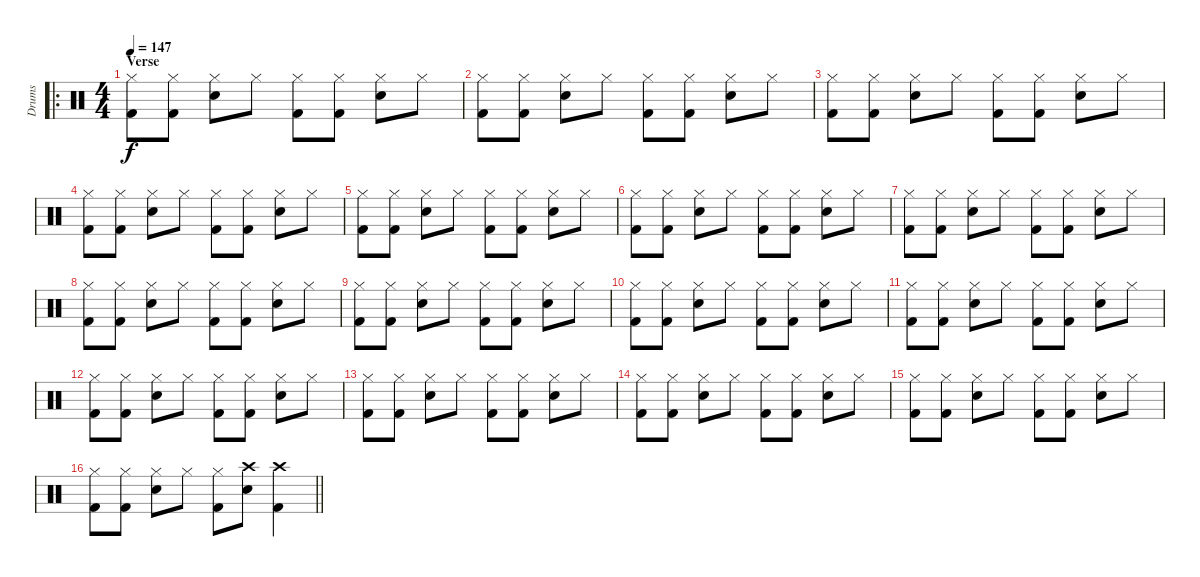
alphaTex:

\track ("Drums" "Drums") {instrument percussion}
\staff {score}
\articulation defaults
\ro
\ts (4 4)
\section ("" "Verse")
\tempo 147
\clef neutral
\ks c
("Hi-Hat (closed)" "Kick (hit) 2").8{dy f} ("Hi-Hat (closed)" "Kick (hit) 2").8 ("Hi-Hat (closed)" "Snare (hit) 2").8 "Hi-Hat (closed)".8 ("Hi-Hat (closed)" "Kick (hit) 2").8 ("Hi-Hat (closed)" "Kick (hit) 2").8 ("Hi-Hat (closed)" "Snare (hit) 2").8 "Hi-Hat (closed)".8 |
("Hi-Hat (closed)" "Kick (hit) 2").8 ("Hi-Hat (closed)" "Kick (hit) 2").8 ("Hi-Hat (closed)" "Snare (hit) 2").8 "Hi-Hat (closed)".8 ("Hi-Hat (closed)" "Kick (hit) 2").8 ("Hi-Hat (closed)" "Kick (hit) 2").8 ("Hi-Hat (closed)" "Snare (hit) 2").8 "Hi-Hat (closed)".8 |
("Hi-Hat (closed)" "Kick (hit) 2").8 ("Hi-Hat (closed)" "Kick (hit) 2").8 ("Hi-Hat (closed)" "Snare (hit) 2").8 "Hi-Hat (closed)".8 ("Hi-Hat (closed)" "Kick (hit) 2").8 ("Hi-Hat (closed)" "Kick (hit) 2").8 ("Hi-Hat (closed)" "Snare (hit) 2").8 "Hi-Hat (closed)".8 |
("Hi-Hat (closed)" "Kick (hit) 2").8 ("Hi-Hat (closed)" "Kick (hit) 2").8 ("Hi-Hat (closed)" "Snare (hit) 2").8 "Hi-Hat (closed)".8 ("Hi-Hat (closed)" "Kick (hit) 2").8 ("Hi-Hat (closed)" "Kick (hit) 2").8 ("Hi-Hat (closed)" "Snare (hit) 2").8 "Hi-Hat (closed)".8 |
("Hi-Hat (closed)" "Kick (hit) 2").8 ("Hi-Hat (closed)" "Kick (hit) 2").8 ("Hi-Hat (closed)" "Snare (hit) 2").8 "Hi-Hat (closed)".8 ("Hi-Hat (closed)" "Kick (hit) 2").8 ("Hi-Hat (closed)" "Kick (hit) 2").8 ("Hi-Hat (closed)" "Snare (hit) 2").8 "Hi-Hat (closed)".8 |
("Hi-Hat (closed)" "Kick (hit) 2").8 ("Hi-Hat (closed)" "Kick (hit) 2").8 ("Hi-Hat (closed)" "Snare (hit) 2").8 "Hi-Hat (closed)".8 ("Hi-Hat (closed)" "Kick (hit) 2").8 ("Hi-Hat (closed)" "Kick (hit) 2").8 ("Hi-Hat (closed)" "Snare (hit) 2").8 "Hi-Hat (closed)".8 |
("Hi-Hat (closed)" "Kick (hit) 2").8 ("Hi-Hat (closed)" "Kick (hit) 2").8 ("Hi-Hat (closed)" "Snare (hit) 2").8 "Hi-Hat (closed)".8 ("Hi-Hat (closed)" "Kick (hit) 2").8 ("Hi-Hat (closed)" "Kick (hit) 2").8 ("Hi-Hat (closed)" "Snare (hit) 2").8 "Hi-Hat (closed)".8 |
("Hi-Hat (closed)" "Kick (hit) 2").8 ("Hi-Hat (closed)" "Kick (hit) 2").8 ("Hi-Hat (closed)" "Snare (hit) 2").8 "Hi-Hat (closed)".8 ("Hi-Hat (closed)" "Kick (hit) 2").8 ("Hi-Hat (closed)" "Kick (hit) 2").8 ("Hi-Hat (closed)" "Snare (hit) 2").8 "Hi-Hat (closed)".8 |
("Hi-Hat (closed)" "Kick (hit) 2").8 ("Hi-Hat (closed)" "Kick (hit) 2").8 ("Hi-Hat (closed)" "Snare (hit) 2").8 "Hi-Hat (closed)".8 ("Hi-Hat (closed)" "Kick (hit) 2").8 ("Hi-Hat (closed)" "Kick (hit) 2").8 ("Hi-Hat (closed)" "Snare (hit) 2").8 "Hi-Hat (closed)".8 |
("Hi-Hat (closed)" "Kick (hit) 2").8 ("Hi-Hat (closed)" "Kick (hit) 2").8 ("Hi-Hat (closed)" "Snare (hit) 2").8 "Hi-Hat (closed)".8 ("Hi-Hat (closed)" "Kick (hit) 2").8 ("Hi-Hat (closed)" "Kick (hit) 2").8 ("Hi-Hat (closed)" "Snare (hit) 2").8 "Hi-Hat (closed)".8 |
("Hi-Hat (closed)" "Kick (hit) 2").8 ("Hi-Hat (closed)" "Kick (hit) 2").8 ("Hi-Hat (closed)" "Snare (hit) 2").8 "Hi-Hat (closed)".8 ("Hi-Hat (closed)" "Kick (hit) 2").8 ("Hi-Hat (closed)" "Kick (hit) 2").8 ("Hi-Hat (closed)" "Snare (hit) 2").8 "Hi-Hat (closed)".8 |
("Hi-Hat (closed)" "Kick (hit) 2").8 ("Hi-Hat (closed)" "Kick (hit) 2").8 ("Hi-Hat (closed)" "Snare (hit) 2").8 "Hi-Hat (closed)".8 ("Hi-Hat (closed)" "Kick (hit) 2").8 ("Hi-Hat (closed)" "Kick (hit) 2").8 ("Hi-Hat (closed)" "Snare (hit) 2").8 "Hi-Hat (closed)".8 |
("Hi-Hat (closed)" "Kick (hit) 2").8 ("Hi-Hat (closed)" "Kick (hit) 2").8 ("Hi-Hat (closed)" "Snare (hit) 2").8 "Hi-Hat (closed)".8 ("Hi-Hat (closed)" "Kick (hit) 2").8 ("Hi-Hat (closed)" "Kick (hit) 2").8 ("Hi-Hat (closed)" "Snare (hit) 2").8 "Hi-Hat (closed)".8 |
("Hi-Hat (closed)" "Kick (hit) 2").8 ("Hi-Hat (closed)" "Kick (hit) 2").8 ("Hi-Hat (closed)" "Snare (hit) 2").8 "Hi-Hat (closed)".8 ("Hi-Hat (closed)" "Kick (hit) 2").8 ("Hi-Hat (closed)" "Kick (hit) 2").8 ("Hi-Hat (closed)" "Snare (hit) 2").8 "Hi-Hat (closed)".8 |
("Hi-Hat (closed)" "Kick (hit) 2").8 ("Hi-Hat (closed)" "Kick (hit) 2").8 ("Hi-Hat (closed)" "Snare (hit) 2").8 "Hi-Hat (closed)".8 ("Hi-Hat (closed)" "Kick (hit) 2").8 ("Hi-Hat (closed)" "Kick (hit) 2").8 ("Hi-Hat (closed)" "Snare (hit) 2").8 "Hi-Hat (closed)".8 |
\barLineRight lightlight
("Hi-Hat (closed)" "Kick (hit) 2").8 ("Hi-Hat (closed)" "Kick (hit) 2").8 ("Hi-Hat (closed)" "Snare (hit) 2").8 "Hi-Hat (closed)".8 ("Hi-Hat (closed)" "Kick (hit) 2").8 ("Crash high (hit)" "Snare (hit) 2").8 ("Crash high (hit)" "Kick (hit) 2").4
